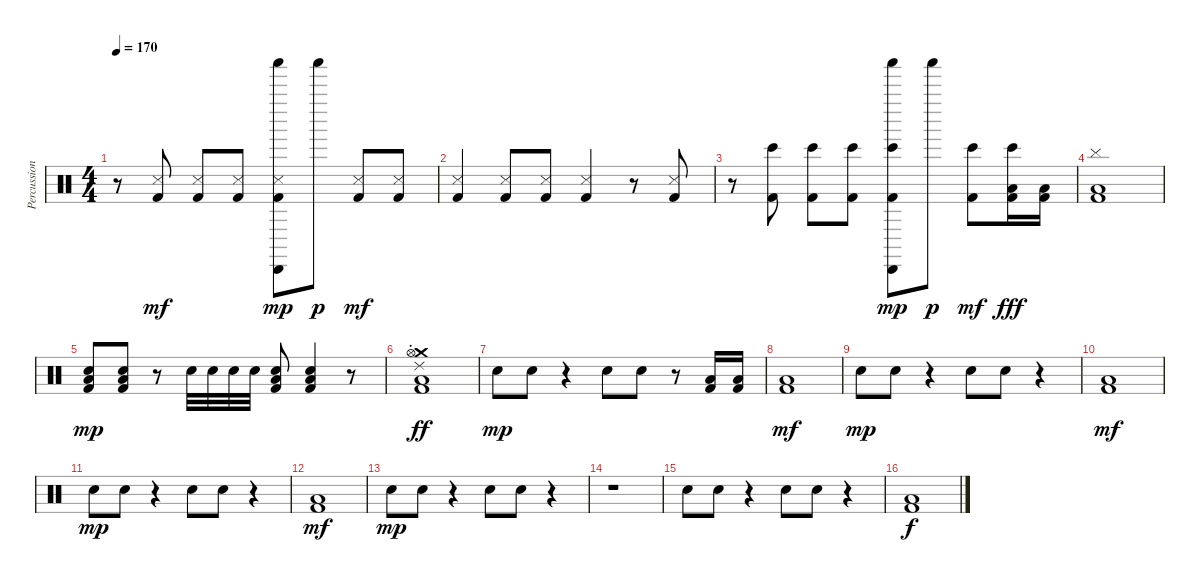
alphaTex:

\track ("Percussion" "Percussion") {instrument percussion}
\staff {score}
\articulation defaults
\ts (4 4)
\tempo 170
\clef neutral
\ks c
r.8{dy mf} ("Metronome (hit)" "Kick (hit) 2").8 ("Metronome (hit)" "Kick (hit) 2").8 ("Metronome (hit)" "Kick (hit) 2").8 ("Metronome (hit)" "Shaker (hit)" "Cabasa (hit)" "Kick (hit) 2").8{dy mp} "Shaker (hit)".8{dy p} ("Metronome (hit)" "Kick (hit) 2").8{dy mf} ("Metronome (hit)" "Kick (hit) 2").8 |
("Metronome (hit)" "Kick (hit) 2").4 ("Metronome (hit)" "Kick (hit) 2").8 ("Metronome (hit)" "Kick (hit) 2").8 ("Metronome (hit)" "Kick (hit) 2").4 r.8 ("Metronome (hit)" "Kick (hit) 2").8 |
r.8 ("Bongo High (hit)" "Kick (hit) 2").8 ("Bongo High (hit)" "Kick (hit) 2").8 ("Bongo High (hit)" "Kick (hit) 2").8 ("Bongo High (hit)" "Shaker (hit)" "Cabasa (hit)" "Kick (hit) 2").8{dy mp} "Shaker (hit)".8{dy p} ("Bongo High (hit)" "Kick (hit) 2").8{dy mf} ("Bongo High (hit)" "Low Tom (hit)" "Kick (hit) 2").16{dy fff} ("Low Floor Tom (hit)" "Kick (hit) 2").16 |
("Cymbal (hit)" "Low Floor Tom (hit)" "Kick (hit) 2").1 |
("Snare (hit) 2" "Low Floor Tom (hit)" "Kick (hit) 2").8{dy mp volume 8} ("Snare (hit) 2" "Low Floor Tom (hit)" "Kick (hit) 2").8 r.8 "Snare (hit) 2".32 "Snare (hit) 2".32 "Snare (hit) 2".32 "Snare (hit) 2".32 ("Snare (hit) 2" "Low Floor Tom (hit)" "Kick (hit) 2").8 ("Snare (hit) 2" "Low Floor Tom (hit)" "Kick (hit) 2").4 r.8 |
("Ride (choke) 2" "Crash medium (hit)" "Hi-Hat (open)" "Low Floor Tom (hit)" "Kick (hit) 2").1{dy ff} |
"Snare (hit) 2".8{dy mp volume 12} "Snare (hit) 2".8 r.4 "Snare (hit) 2".8 "Snare (hit) 2".8 r.8 ("Low Floor Tom (hit)" "Kick (hit) 2").16 ("Low Floor Tom (hit)" "Kick (hit) 2").16 |
("Low Floor Tom (hit)" "Kick (hit) 2").1{dy mf} |
"Snare (hit) 2".8{dy mp} "Snare (hit) 2".8 r.4 "Snare (hit) 2".8 "Snare (hit) 2".8 r.4 |
("Low Floor Tom (hit)" "Kick (hit) 2").1{dy mf} |
"Snare (hit) 2".8{dy mp} "Snare (hit) 2".8 r.4 "Snare (hit) 2".8 "Snare (hit) 2".8 r.4 |
("Low Floor Tom (hit)" "Kick (hit) 2").1{dy mf} |
"Snare (hit) 2".8{dy mp} "Snare (hit) 2".8 r.4 "Snare (hit) 2".8 "Snare (hit) 2".8 r.4 |
r.1 |
"Snare (hit) 2".8 "Snare (hit) 2".8 r.4 "Snare (hit) 2".8 "Snare (hit) 2".8 r.4 |
("Low Floor Tom (hit)" "Kick (hit) 2").1{dy f}
